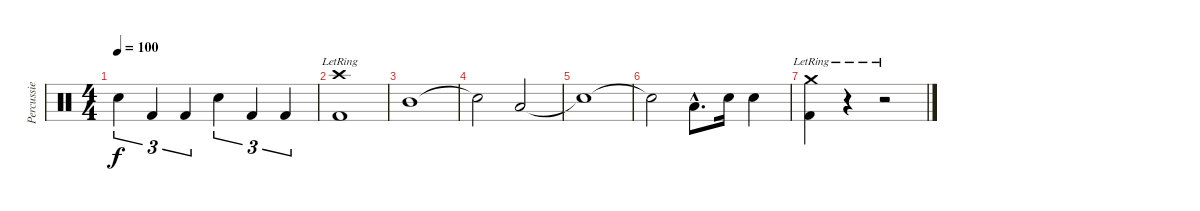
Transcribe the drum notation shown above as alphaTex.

\track ("Percussie" "Percussie") {instrument percussion}
\staff {score}
\articulation defaults
\ts (4 4)
\tempo 100
\clef neutral
\ks c "Snare (hit) 2".4{tu (3 2) dy f} "Kick (hit) 2".4{tu (3 2)} "Kick (hit) 2".4{tu (3 2)} "Snare (hit) 2".4{tu (3 2)} "Kick (hit) 2".4{tu (3 2)} "Kick (hit) 2".4{tu (3 2)}
|
("Crash high (hit)"{lr} "Kick (hit) 2").1 |
"Mid Tom (hit)".1 |
"Snare (hit)"{t}.2 "Low Tom (hit)".2 |
"Snare (hit)"{t}.1 |
"Snare (hit)"{t}.2 "Low Tom (hit)"{hac}.8{d} "Snare (hit) 2".16 "Snare (hit) 2".4 |
("Crash medium (hit)"{lr} "Kick (hit) 2").4 r.4 r.2
